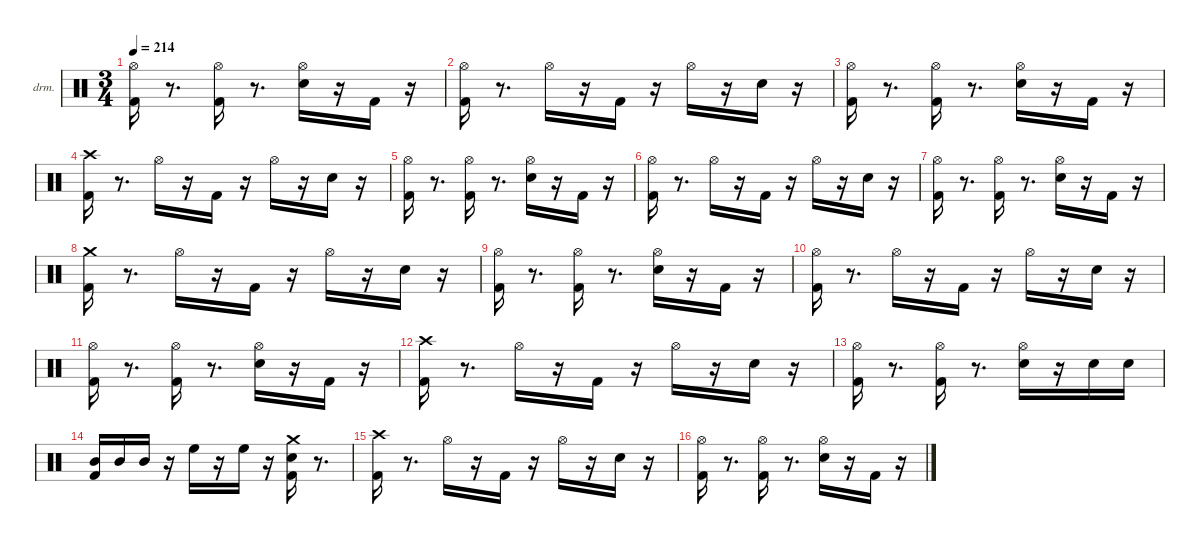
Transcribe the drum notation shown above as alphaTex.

\hideDynamics
\bracketExtendMode nobrackets
\firstSystemTrackNameOrientation horizontal
\track ("EZdrummer 3" "drm.") {instrument percussion}
\staff {score}
\articulation defaults
\ts (3 4)
\tempo 214
\clef neutral
\ks aminor
("Kick (hit) 2" "Hi-Hat (open)"{acc #}).16{dy ff} r.8{d} ("Kick (hit) 2" "Hi-Hat (open)"{acc #}).16{dy f} r.8{d} ("Snare (hit) 2" "Hi-Hat (open)"{acc #}).16 r.16 "Kick (hit) 2".16{dy mp} r.16 |
("Kick (hit) 2" "Hi-Hat (open)"{acc #}).16{dy fff} r.8{d} "Hi-Hat (open)"{acc #}.16{dy mf} r.16 "Kick (hit) 2".16{dy ff} r.16 "Hi-Hat (open)"{acc #}.16{dy f} r.16 "Snare (hit) 2".16{dy ff} r.16 |
("Kick (hit) 2" "Hi-Hat (open)"{acc #}).16{dy fff} r.8{d} ("Kick (hit) 2" "Hi-Hat (open)"{acc #}).16{dy ff} r.8{d} ("Snare (hit) 2" "Hi-Hat (open)"{acc #}).16{dy f} r.16 "Kick (hit) 2".16{dy mp} r.16 |
("Kick (hit) 2" "Crash high (hit)"{acc #}).16{dy fff} r.8{d} "Hi-Hat (open)"{acc #}.16{dy mf} r.16 "Kick (hit) 2".16{dy ff} r.16 "Hi-Hat (open)"{acc #}.16{dy f} r.16 "Snare (hit) 2".16{dy ff} r.16 |
("Kick (hit) 2" "Hi-Hat (open)"{acc #}).16 r.8{d} ("Kick (hit) 2" "Hi-Hat (open)"{acc #}).16{dy f} r.8{d} ("Snare (hit) 2" "Hi-Hat (open)"{acc #}).16 r.16 "Kick (hit) 2".16{dy mp} r.16 |
("Kick (hit) 2" "Hi-Hat (open)"{acc #}).16{dy fff} r.8{d} "Hi-Hat (open)"{acc #}.16{dy mf} r.16 "Kick (hit) 2".16{dy ff} r.16 "Hi-Hat (open)"{acc #}.16{dy f} r.16 "Snare (hit) 2".16{dy ff} r.16 |
("Kick (hit) 2" "Hi-Hat (open)"{acc #}).16{dy fff} r.8{d} ("Kick (hit) 2" "Hi-Hat (open)"{acc #}).16{dy f} r.8{d} ("Snare (hit) 2" "Hi-Hat (open)"{acc #}).16 r.16 "Kick (hit) 2".16{dy mp} r.16 |
("Kick (hit) 2" "Crash medium (hit)").16{dy fff} r.8{d} "Hi-Hat (open)"{acc #}.16{dy mf} r.16 "Kick (hit) 2".16{dy ff} r.16 "Hi-Hat (open)"{acc #}.16{dy f} r.16 "Snare (hit) 2".16{dy ff} r.16 |
("Kick (hit) 2" "Hi-Hat (open)"{acc #}).16 r.8{d} ("Kick (hit) 2" "Hi-Hat (open)"{acc #}).16{dy f} r.8{d} ("Snare (hit) 2" "Hi-Hat (open)"{acc #}).16 r.16 "Kick (hit) 2".16{dy mp} r.16 |
("Kick (hit) 2" "Hi-Hat (open)"{acc #}).16{dy fff} r.8{d} "Hi-Hat (open)"{acc #}.16{dy mf} r.16 "Kick (hit) 2".16{dy ff} r.16 "Hi-Hat (open)"{acc #}.16{dy f} r.16 "Snare (hit) 2".16{dy ff} r.16 |
("Kick (hit) 2" "Hi-Hat (open)"{acc #}).16{dy fff} r.8{d} ("Kick (hit) 2" "Hi-Hat (open)"{acc #}).16{dy ff} r.8{d} ("Snare (hit) 2" "Hi-Hat (open)"{acc #}).16{dy f} r.16 "Kick (hit) 2".16{dy mp} r.16 |
("Kick (hit) 2" "Crash high (hit)"{acc #}).16{dy ff} r.8{d} "Hi-Hat (open)"{acc #}.16{dy f} r.16 "Kick (hit) 2".16{dy ff} r.16 "Hi-Hat (open)"{acc #}.16 r.16 "Snare (hit) 2".16 r.16 |
("Kick (hit) 2" "Hi-Hat (open)"{acc #}).16{dy fff} r.8{d} ("Kick (hit) 2" "Hi-Hat (open)"{acc #}).16{dy mf} r.8{d} ("Snare (hit) 2" "Hi-Hat (open)"{acc #}).16{dy fff} r.16 "Snare (hit) 2".16{dy mf} "Snare (hit) 2".16{dy pp} |
("Kick (hit) 2" "Mid Tom (hit)").16{dy ff} "Mid Tom (hit)".16{dy mf} "Mid Tom (hit)".16{dy fff} r.16 "High Floor Tom (hit)".16{dy ff} r.16 "High Floor Tom (hit)".16{dy mf} r.16 ("Kick (hit) 2" "Snare (hit) 2" "Crash medium (hit)").16{dy ff} r.8{d} |
("Kick (hit) 2" "Crash high (hit)"{acc #}).16{dy fff} r.8{d} "Hi-Hat (open)"{acc #}.16{dy mf} r.16 "Kick (hit) 2".16{dy ff} r.16 "Hi-Hat (open)"{acc #}.16{dy f} r.16 "Snare (hit) 2".16{dy ff} r.16 |
("Kick (hit) 2" "Hi-Hat (open)"{acc #}).16 r.8{d} ("Kick (hit) 2" "Hi-Hat (open)"{acc #}).16{dy f} r.8{d} ("Snare (hit) 2" "Hi-Hat (open)"{acc #}).16 r.16 "Kick (hit) 2".16{dy mp} r.16
